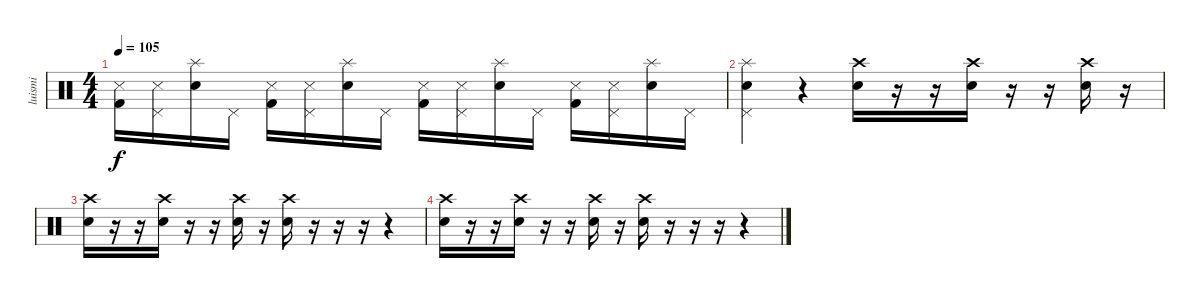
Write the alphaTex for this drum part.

\track ("luismi" "luismi") {instrument percussion}
\staff {score}
\articulation defaults
\ts (4 4)
\tempo 105
\clef neutral
\ks c
("Kick (hit) 2" "Snare (side stick) 3").16{dy f} ("Pedal Hi-Hat (hit)" "Snare (side stick) 3").16 ("Electric Snare (hit)" "Splash (hit)").16 "Pedal Hi-Hat (hit)".16 ("Kick (hit) 2" "Snare (side stick) 3").16 ("Pedal Hi-Hat (hit)" "Snare (side stick) 3").16 ("Electric Snare (hit)" "Splash (hit)").16 "Pedal Hi-Hat (hit)".16 ("Kick (hit) 2" "Snare (side stick) 3").16 ("Pedal Hi-Hat (hit)" "Snare (side stick) 3").16 ("Electric Snare (hit)" "Splash (hit)").16 "Pedal Hi-Hat (hit)".16 ("Kick (hit) 2" "Snare (side stick) 3").16 ("Pedal Hi-Hat (hit)" "Snare (side stick) 3").16 ("Electric Snare (hit)" "Splash (hit)").16 "Pedal Hi-Hat (hit)".16 |
("Splash (hit)" "Electric Snare (hit)" "Pedal Hi-Hat (hit)").4 r.4 ("Crash high (hit)" "Electric Snare (hit)").16 r.16 r.16 ("Crash high (hit)" "Electric Snare (hit)").16 r.16 r.16 ("Crash high (hit)" "Electric Snare (hit)").16 r.16 |
("Crash high (hit)" "Electric Snare (hit)").16 r.16 r.16 ("Crash high (hit)" "Electric Snare (hit)").16 r.16 r.16 ("Crash high (hit)" "Electric Snare (hit)").16 r.16 ("Crash high (hit)" "Electric Snare (hit)").16 r.16 r.16 r.16 r.4 |
("Crash high (hit)" "Electric Snare (hit)").16 r.16 r.16 ("Crash high (hit)" "Electric Snare (hit)").16 r.16 r.16 ("Crash high (hit)" "Electric Snare (hit)").16 r.16 ("Crash high (hit)" "Electric Snare (hit)").16 r.16 r.16 r.16 r.4
